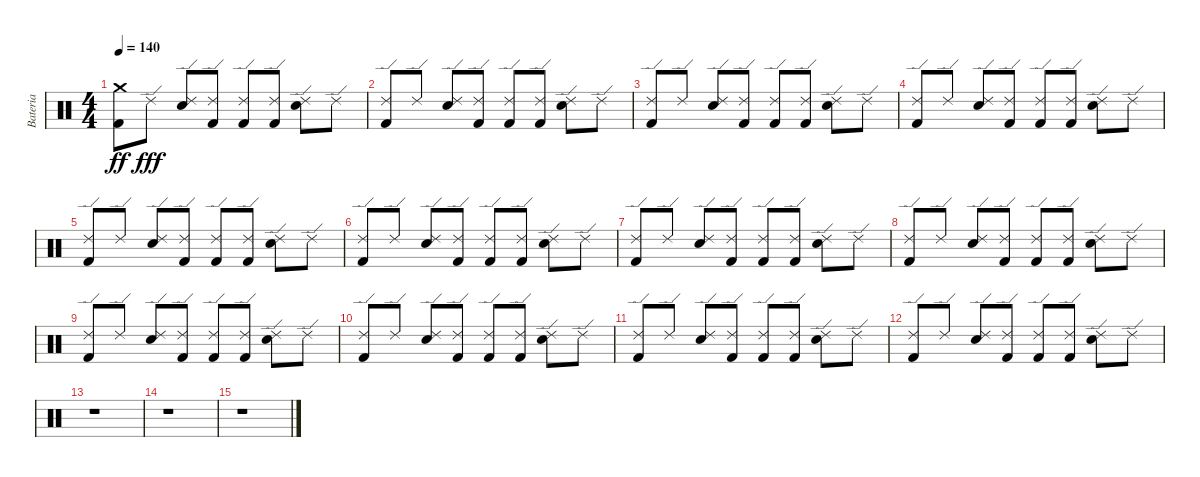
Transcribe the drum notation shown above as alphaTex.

\track ("Bateria" "Bateria") {instrument percussion}
\staff {score}
\articulation defaults
\ts (4 4)
\tempo 140
\clef neutral
\ks c
("Crash medium (hit)" "Kick (hit) 2").8{dy ff} "Ride (edge) 2".8{dy fff} ("Ride (edge) 2" "Snare (hit) 2").8 ("Ride (edge) 2" "Kick (hit) 2").8 ("Ride (edge) 2" "Kick (hit) 2").8 ("Ride (edge) 2" "Kick (hit) 2").8 ("Ride (edge) 2" "Snare (hit) 2").8 "Ride (edge) 2".8 |
("Ride (edge) 2" "Kick (hit) 2").8 "Ride (edge) 2".8 ("Ride (edge) 2" "Snare (hit) 2").8 ("Ride (edge) 2" "Kick (hit) 2").8 ("Ride (edge) 2" "Kick (hit) 2").8 ("Ride (edge) 2" "Kick (hit) 2").8 ("Ride (edge) 2" "Snare (hit) 2").8 "Ride (edge) 2".8 |
("Ride (edge) 2" "Kick (hit) 2").8 "Ride (edge) 2".8 ("Ride (edge) 2" "Snare (hit) 2").8 ("Ride (edge) 2" "Kick (hit) 2").8 ("Ride (edge) 2" "Kick (hit) 2").8 ("Ride (edge) 2" "Kick (hit) 2").8 ("Ride (edge) 2" "Snare (hit) 2").8 "Ride (edge) 2".8 |
("Ride (edge) 2" "Kick (hit) 2").8 "Ride (edge) 2".8 ("Ride (edge) 2" "Snare (hit) 2").8 ("Ride (edge) 2" "Kick (hit) 2").8 ("Ride (edge) 2" "Kick (hit) 2").8 ("Ride (edge) 2" "Kick (hit) 2").8 ("Ride (edge) 2" "Snare (hit) 2").8 "Ride (edge) 2".8 |
("Ride (edge) 2" "Kick (hit) 2").8 "Ride (edge) 2".8 ("Ride (edge) 2" "Snare (hit) 2").8 ("Ride (edge) 2" "Kick (hit) 2").8 ("Ride (edge) 2" "Kick (hit) 2").8 ("Ride (edge) 2" "Kick (hit) 2").8 ("Ride (edge) 2" "Snare (hit) 2").8 "Ride (edge) 2".8 |
("Ride (edge) 2" "Kick (hit) 2").8 "Ride (edge) 2".8 ("Ride (edge) 2" "Snare (hit) 2").8 ("Ride (edge) 2" "Kick (hit) 2").8 ("Ride (edge) 2" "Kick (hit) 2").8 ("Ride (edge) 2" "Kick (hit) 2").8 ("Ride (edge) 2" "Snare (hit) 2").8 "Ride (edge) 2".8 |
("Ride (edge) 2" "Kick (hit) 2").8 "Ride (edge) 2".8 ("Ride (edge) 2" "Snare (hit) 2").8 ("Ride (edge) 2" "Kick (hit) 2").8 ("Ride (edge) 2" "Kick (hit) 2").8 ("Ride (edge) 2" "Kick (hit) 2").8 ("Ride (edge) 2" "Snare (hit) 2").8 "Ride (edge) 2".8 |
("Ride (edge) 2" "Kick (hit) 2").8 "Ride (edge) 2".8 ("Ride (edge) 2" "Snare (hit) 2").8 ("Ride (edge) 2" "Kick (hit) 2").8 ("Ride (edge) 2" "Kick (hit) 2").8 ("Ride (edge) 2" "Kick (hit) 2").8 ("Ride (edge) 2" "Snare (hit) 2").8 "Ride (edge) 2".8 |
("Ride (edge) 2" "Kick (hit) 2").8 "Ride (edge) 2".8 ("Ride (edge) 2" "Snare (hit) 2").8 ("Ride (edge) 2" "Kick (hit) 2").8 ("Ride (edge) 2" "Kick (hit) 2").8 ("Ride (edge) 2" "Kick (hit) 2").8 ("Ride (edge) 2" "Snare (hit) 2").8 "Ride (edge) 2".8 |
("Ride (edge) 2" "Kick (hit) 2").8 "Ride (edge) 2".8 ("Ride (edge) 2" "Snare (hit) 2").8 ("Ride (edge) 2" "Kick (hit) 2").8 ("Ride (edge) 2" "Kick (hit) 2").8 ("Ride (edge) 2" "Kick (hit) 2").8 ("Ride (edge) 2" "Snare (hit) 2").8 "Ride (edge) 2".8 |
("Ride (edge) 2" "Kick (hit) 2").8 "Ride (edge) 2".8 ("Ride (edge) 2" "Snare (hit) 2").8 ("Ride (edge) 2" "Kick (hit) 2").8 ("Ride (edge) 2" "Kick (hit) 2").8 ("Ride (edge) 2" "Kick (hit) 2").8 ("Ride (edge) 2" "Snare (hit) 2").8 "Ride (edge) 2".8 |
("Ride (edge) 2" "Kick (hit) 2").8 "Ride (edge) 2".8 ("Ride (edge) 2" "Snare (hit) 2").8 ("Ride (edge) 2" "Kick (hit) 2").8 ("Ride (edge) 2" "Kick (hit) 2").8 ("Ride (edge) 2" "Kick (hit) 2").8 ("Ride (edge) 2" "Snare (hit) 2").8 "Ride (edge) 2".8 |
r.1 |
r.1 |
r.1
